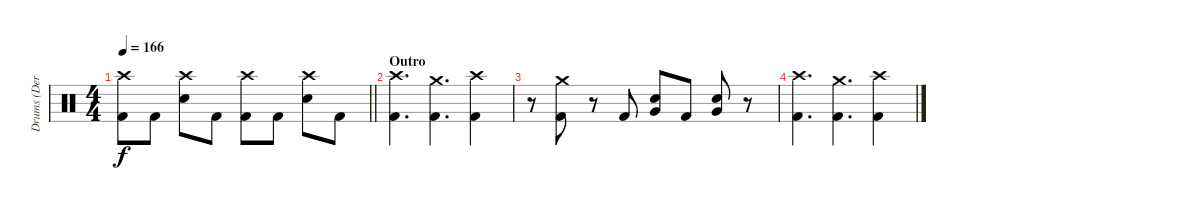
\track ("Drums (Derek)" "Drums (Der") {instrument percussion}
\staff {score}
\articulation defaults
\ts (4 4)
\tempo 166
\clef neutral
\barLineRight lightlight
\ks c
("Crash high (hit)" "Kick (hit) 2").8{dy f} "Kick (hit) 2".8 ("Crash high (hit)" "Electric Snare (hit)").8 "Kick (hit) 2".8 ("Crash high (hit)" "Kick (hit) 2").8 "Kick (hit) 2".8 ("Crash high (hit)" "Electric Snare (hit)").8 "Kick (hit) 2".8 |
\section ("" "Outro")
("Crash high (hit)" "Kick (hit) 2").4{d} ("Crash medium (hit)" "Kick (hit) 2").4{d} ("Crash high (hit)" "Kick (hit) 2").4 |
r.8 ("Crash medium (hit)" "Kick (hit) 2").8 r.8 "Kick (hit) 2".8 ("Very Low Tom (hit)" "Electric Snare (hit)").8 "Kick (hit) 2".8 ("Very Low Tom (hit)" "Electric Snare (hit)").8 r.8 |
("Crash high (hit)" "Kick (hit) 2").4{d} ("Crash medium (hit)" "Kick (hit) 2").4{d} ("Crash high (hit)" "Kick (hit) 2").4
